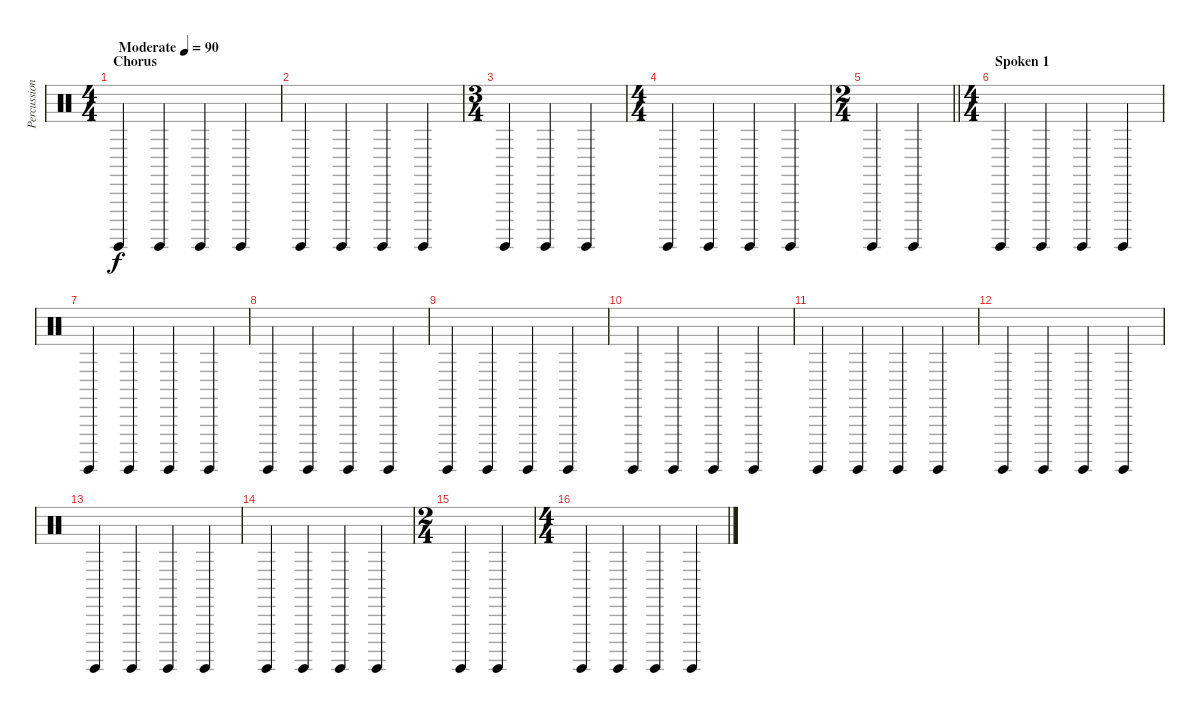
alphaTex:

\track ("Percussion" "Percussion") {instrument percussion}
\staff {score}
\articulation defaults
\ts (4 4)
\section ("" "Chorus")
\tempo (90 "Moderate")
\clef neutral
\ks c "Surdo (hit)".4{dy f} "Surdo (hit)".4 "Surdo (hit)".4 "Surdo (hit)".4
|
"Surdo (hit)".4 "Surdo (hit)".4 "Surdo (hit)".4 "Surdo (hit)".4 |
\ts (3 4)
"Surdo (hit)".4 "Surdo (hit)".4 "Surdo (hit)".4 |
\ts (4 4)
"Surdo (hit)".4 "Surdo (hit)".4 "Surdo (hit)".4 "Surdo (hit)".4 |
\ts (2 4)
\barLineRight lightlight "Surdo (hit)".4 "Surdo (hit)".4
|
\ts (4 4)
\section ("" "Spoken 1")
"Surdo (hit)".4 "Surdo (hit)".4 "Surdo (hit)".4 "Surdo (hit)".4 |
"Surdo (hit)".4 "Surdo (hit)".4 "Surdo (hit)".4 "Surdo (hit)".4 |
"Surdo (hit)".4 "Surdo (hit)".4 "Surdo (hit)".4 "Surdo (hit)".4 |
"Surdo (hit)".4 "Surdo (hit)".4 "Surdo (hit)".4 "Surdo (hit)".4 |
"Surdo (hit)".4 "Surdo (hit)".4 "Surdo (hit)".4 "Surdo (hit)".4 |
"Surdo (hit)".4 "Surdo (hit)".4 "Surdo (hit)".4 "Surdo (hit)".4 |
"Surdo (hit)".4 "Surdo (hit)".4 "Surdo (hit)".4 "Surdo (hit)".4 |
"Surdo (hit)".4 "Surdo (hit)".4 "Surdo (hit)".4 "Surdo (hit)".4 |
"Surdo (hit)".4 "Surdo (hit)".4 "Surdo (hit)".4 "Surdo (hit)".4 |
\ts (2 4)
"Surdo (hit)".4 "Surdo (hit)".4 |
\ts (4 4)
"Surdo (hit)".4 "Surdo (hit)".4 "Surdo (hit)".4 "Surdo (hit)".4
